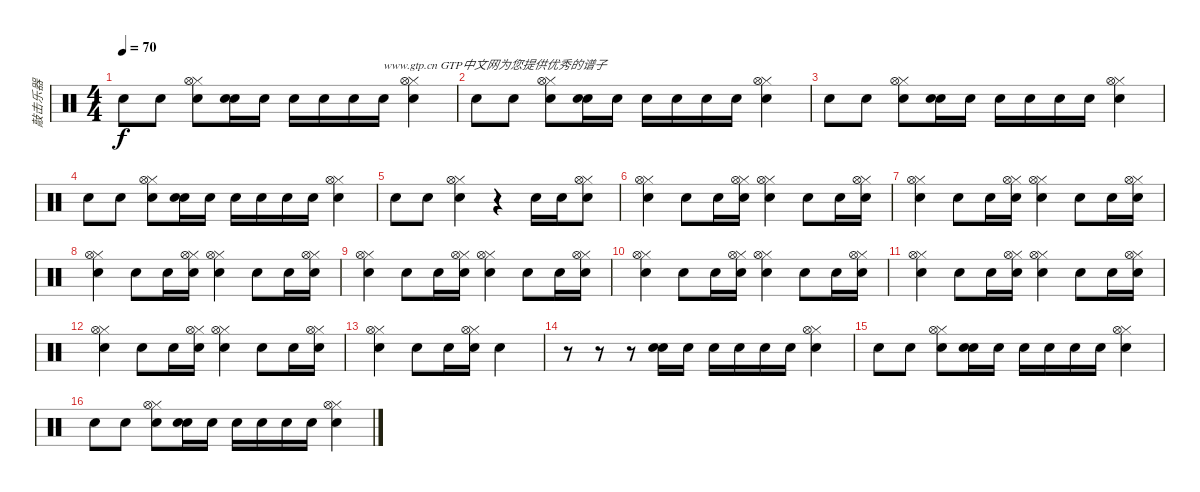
\track ("敲击乐器" "敲击乐器") {instrument percussion}
\staff {score}
\articulation defaults
\ts (4 4)
\tempo 70
\clef neutral
\ks c "Snare (hit) 2".8{dy f} "Snare (hit) 2".8
("Electric Snare (hit)" "Hi-Hat (closed)" "Hi-Hat (open)").8 ("Snare (hit) 2" "Snare (hit) 2").16 "Snare (hit) 2".16 "Snare (hit) 2".16 "Snare (hit) 2".16 "Snare (hit) 2".16 "Snare (hit) 2".16{txt "www.gtp.cn GTP中文网为您提供优秀的谱子"} ("Electric Snare (hit)" "Hi-Hat (closed)" "Hi-Hat (open)").4 |
"Snare (hit) 2".8 "Snare (hit) 2".8 ("Electric Snare (hit)" "Hi-Hat (closed)" "Hi-Hat (open)").8 ("Snare (hit) 2" "Snare (hit) 2").16 "Snare (hit) 2".16 "Snare (hit) 2".16 "Snare (hit) 2".16 "Snare (hit) 2".16 "Snare (hit) 2".16 ("Electric Snare (hit)" "Hi-Hat (closed)" "Hi-Hat (open)").4 |
"Snare (hit) 2".8 "Snare (hit) 2".8 ("Electric Snare (hit)" "Hi-Hat (closed)" "Hi-Hat (open)").8 ("Snare (hit) 2" "Snare (hit) 2").16 "Snare (hit) 2".16 "Snare (hit) 2".16 "Snare (hit) 2".16 "Snare (hit) 2".16 "Snare (hit) 2".16 ("Electric Snare (hit)" "Hi-Hat (closed)" "Hi-Hat (open)").4 |
"Snare (hit) 2".8 "Snare (hit) 2".8 ("Electric Snare (hit)" "Hi-Hat (closed)" "Hi-Hat (open)").8 ("Snare (hit) 2" "Snare (hit) 2").16 "Snare (hit) 2".16 "Snare (hit) 2".16 "Snare (hit) 2".16 "Snare (hit) 2".16 "Snare (hit) 2".16 ("Electric Snare (hit)" "Hi-Hat (closed)" "Hi-Hat (open)").4 |
"Snare (hit) 2".8 "Snare (hit) 2".8 ("Electric Snare (hit)" "Hi-Hat (closed)" "Hi-Hat (open)").4 r.4 "Snare (hit) 2".16 "Snare (hit) 2".16 ("Electric Snare (hit)" "Hi-Hat (closed)" "Hi-Hat (open)").8 |
("Electric Snare (hit)" "Hi-Hat (closed)" "Hi-Hat (open)").4 "Snare (hit) 2".8 "Snare (hit) 2".16 ("Electric Snare (hit)" "Hi-Hat (closed)" "Hi-Hat (open)").16 ("Electric Snare (hit)" "Hi-Hat (closed)" "Hi-Hat (open)").4 "Snare (hit) 2".8 "Snare (hit) 2".16 ("Electric Snare (hit)" "Hi-Hat (closed)" "Hi-Hat (open)").16 |
("Electric Snare (hit)" "Hi-Hat (closed)" "Hi-Hat (open)").4 "Snare (hit) 2".8 "Snare (hit) 2".16 ("Electric Snare (hit)" "Hi-Hat (closed)" "Hi-Hat (open)").16 ("Electric Snare (hit)" "Hi-Hat (closed)" "Hi-Hat (open)").4 "Snare (hit) 2".8 "Snare (hit) 2".16 ("Electric Snare (hit)" "Hi-Hat (closed)" "Hi-Hat (open)").16 |
("Electric Snare (hit)" "Hi-Hat (closed)" "Hi-Hat (open)").4 "Snare (hit) 2".8 "Snare (hit) 2".16 ("Electric Snare (hit)" "Hi-Hat (closed)" "Hi-Hat (open)").16 ("Electric Snare (hit)" "Hi-Hat (closed)" "Hi-Hat (open)").4 "Snare (hit) 2".8 "Snare (hit) 2".16 ("Electric Snare (hit)" "Hi-Hat (closed)" "Hi-Hat (open)").16 |
("Electric Snare (hit)" "Hi-Hat (closed)" "Hi-Hat (open)").4 "Snare (hit) 2".8 "Snare (hit) 2".16 ("Electric Snare (hit)" "Hi-Hat (closed)" "Hi-Hat (open)").16 ("Electric Snare (hit)" "Hi-Hat (closed)" "Hi-Hat (open)").4 "Snare (hit) 2".8 "Snare (hit) 2".16 ("Electric Snare (hit)" "Hi-Hat (closed)" "Hi-Hat (open)").16 |
("Electric Snare (hit)" "Hi-Hat (closed)" "Hi-Hat (open)").4 "Snare (hit) 2".8 "Snare (hit) 2".16 ("Electric Snare (hit)" "Hi-Hat (closed)" "Hi-Hat (open)").16 ("Electric Snare (hit)" "Hi-Hat (closed)" "Hi-Hat (open)").4 "Snare (hit) 2".8 "Snare (hit) 2".16 ("Electric Snare (hit)" "Hi-Hat (closed)" "Hi-Hat (open)").16 |
("Electric Snare (hit)" "Hi-Hat (closed)" "Hi-Hat (open)").4 "Snare (hit) 2".8 "Snare (hit) 2".16 ("Electric Snare (hit)" "Hi-Hat (closed)" "Hi-Hat (open)").16 ("Electric Snare (hit)" "Hi-Hat (closed)" "Hi-Hat (open)").4 "Snare (hit) 2".8 "Snare (hit) 2".16 ("Electric Snare (hit)" "Hi-Hat (closed)" "Hi-Hat (open)").16 |
("Electric Snare (hit)" "Hi-Hat (closed)" "Hi-Hat (open)").4 "Snare (hit) 2".8 "Snare (hit) 2".16 ("Electric Snare (hit)" "Hi-Hat (closed)" "Hi-Hat (open)").16 ("Electric Snare (hit)" "Hi-Hat (closed)" "Hi-Hat (open)").4 "Snare (hit) 2".8 "Snare (hit) 2".16 ("Electric Snare (hit)" "Hi-Hat (closed)" "Hi-Hat (open)").16 |
("Electric Snare (hit)" "Hi-Hat (closed)" "Hi-Hat (open)").4 "Snare (hit) 2".8 "Snare (hit) 2".16 ("Electric Snare (hit)" "Hi-Hat (closed)" "Hi-Hat (open)").16 "Metronome (bell)".2 |
r.8 r.8 r.8 ("Snare (hit) 2" "Snare (hit) 2").16 "Snare (hit) 2".16 "Snare (hit) 2".16 "Snare (hit) 2".16 "Snare (hit) 2".16 "Snare (hit) 2".16 ("Electric Snare (hit)" "Hi-Hat (closed)" "Hi-Hat (open)").4 |
"Snare (hit) 2".8 "Snare (hit) 2".8 ("Electric Snare (hit)" "Hi-Hat (closed)" "Hi-Hat (open)").8 ("Snare (hit) 2" "Snare (hit) 2").16 "Snare (hit) 2".16 "Snare (hit) 2".16 "Snare (hit) 2".16 "Snare (hit) 2".16 "Snare (hit) 2".16 ("Electric Snare (hit)" "Hi-Hat (closed)" "Hi-Hat (open)").4 |
"Snare (hit) 2".8 "Snare (hit) 2".8 ("Electric Snare (hit)" "Hi-Hat (closed)" "Hi-Hat (open)").8 ("Snare (hit) 2" "Snare (hit) 2").16 "Snare (hit) 2".16 "Snare (hit) 2".16 "Snare (hit) 2".16 "Snare (hit) 2".16 "Snare (hit) 2".16 ("Electric Snare (hit)" "Hi-Hat (closed)" "Hi-Hat (open)").4
